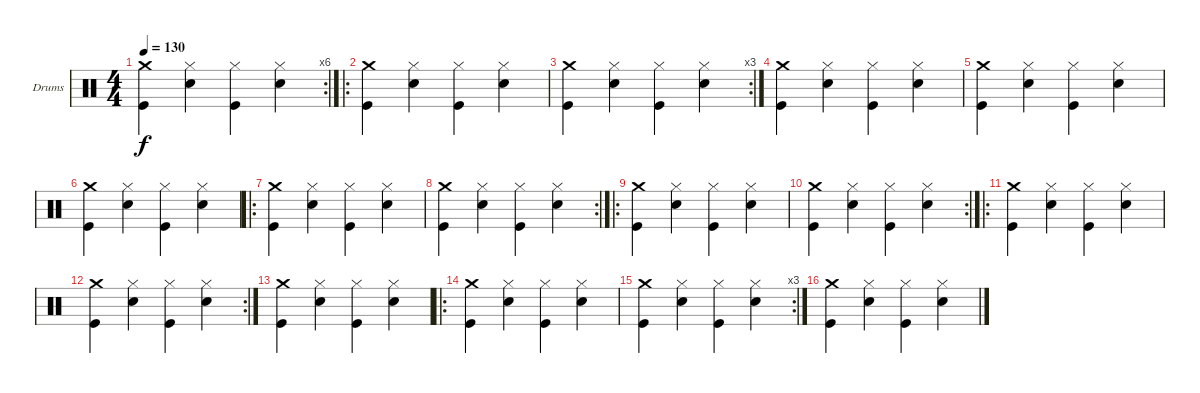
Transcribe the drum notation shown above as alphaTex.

\bracketExtendMode groupsimilarinstruments
\firstSystemTrackNameOrientation horizontal
\otherSystemsTrackNameOrientation horizontal
\track ("Drumkit" "Drums") {instrument percussion}
\staff {score}
\articulation defaults
\rc 6
\ts (4 4)
\tempo 130
\clef neutral
\ks c
("Crash medium (hit)" "Kick (hit)").4{dy f} ("Hi-Hat (closed)" "Snare (hit) 2").4 ("Hi-Hat (closed)" "Kick (hit)").4 ("Hi-Hat (closed)" "Snare (hit) 2").4 |
\ro
("Crash medium (hit)" "Kick (hit)").4 ("Hi-Hat (closed)" "Snare (hit) 2").4 ("Hi-Hat (closed)" "Kick (hit)").4 ("Hi-Hat (closed)" "Snare (hit) 2").4 |
\rc 3
("Crash medium (hit)" "Kick (hit)").4 ("Hi-Hat (closed)" "Snare (hit) 2").4 ("Hi-Hat (closed)" "Kick (hit)").4 ("Hi-Hat (closed)" "Snare (hit) 2").4 |
("Crash medium (hit)" "Kick (hit)").4 ("Hi-Hat (closed)" "Snare (hit) 2").4 ("Hi-Hat (closed)" "Kick (hit)").4 ("Hi-Hat (closed)" "Snare (hit) 2").4 |
("Crash medium (hit)" "Kick (hit)").4 ("Hi-Hat (closed)" "Snare (hit) 2").4 ("Hi-Hat (closed)" "Kick (hit)").4 ("Hi-Hat (closed)" "Snare (hit) 2").4 |
("Crash medium (hit)" "Kick (hit)").4 ("Hi-Hat (closed)" "Snare (hit) 2").4 ("Hi-Hat (closed)" "Kick (hit)").4 ("Hi-Hat (closed)" "Snare (hit) 2").4 |
\ro
("Crash medium (hit)" "Kick (hit)").4 ("Hi-Hat (closed)" "Snare (hit) 2").4 ("Hi-Hat (closed)" "Kick (hit)").4 ("Hi-Hat (closed)" "Snare (hit) 2").4 |
\rc 2
("Crash medium (hit)" "Kick (hit)").4 ("Hi-Hat (closed)" "Snare (hit) 2").4 ("Hi-Hat (closed)" "Kick (hit)").4 ("Hi-Hat (closed)" "Snare (hit) 2").4 |
\ro
("Crash medium (hit)" "Kick (hit)").4 ("Hi-Hat (closed)" "Snare (hit) 2").4 ("Hi-Hat (closed)" "Kick (hit)").4 ("Hi-Hat (closed)" "Snare (hit) 2").4 |
\rc 2
("Crash medium (hit)" "Kick (hit)").4 ("Hi-Hat (closed)" "Snare (hit) 2").4 ("Hi-Hat (closed)" "Kick (hit)").4 ("Hi-Hat (closed)" "Snare (hit) 2").4 |
\ro
("Crash medium (hit)" "Kick (hit)").4 ("Hi-Hat (closed)" "Snare (hit) 2").4 ("Hi-Hat (closed)" "Kick (hit)").4 ("Hi-Hat (closed)" "Snare (hit) 2").4 |
\rc 2
("Crash medium (hit)" "Kick (hit)").4 ("Hi-Hat (closed)" "Snare (hit) 2").4 ("Hi-Hat (closed)" "Kick (hit)").4 ("Hi-Hat (closed)" "Snare (hit) 2").4 |
("Crash medium (hit)" "Kick (hit)").4 ("Hi-Hat (closed)" "Snare (hit) 2").4 ("Hi-Hat (closed)" "Kick (hit)").4 ("Hi-Hat (closed)" "Snare (hit) 2").4 |
\ro
("Crash medium (hit)" "Kick (hit)").4 ("Hi-Hat (closed)" "Snare (hit) 2").4 ("Hi-Hat (closed)" "Kick (hit)").4 ("Hi-Hat (closed)" "Snare (hit) 2").4 |
\rc 3
("Crash medium (hit)" "Kick (hit)").4 ("Hi-Hat (closed)" "Snare (hit) 2").4 ("Hi-Hat (closed)" "Kick (hit)").4 ("Hi-Hat (closed)" "Snare (hit) 2").4 |
("Crash medium (hit)" "Kick (hit)").4 ("Hi-Hat (closed)" "Snare (hit) 2").4 ("Hi-Hat (closed)" "Kick (hit)").4 ("Hi-Hat (closed)" "Snare (hit) 2").4
